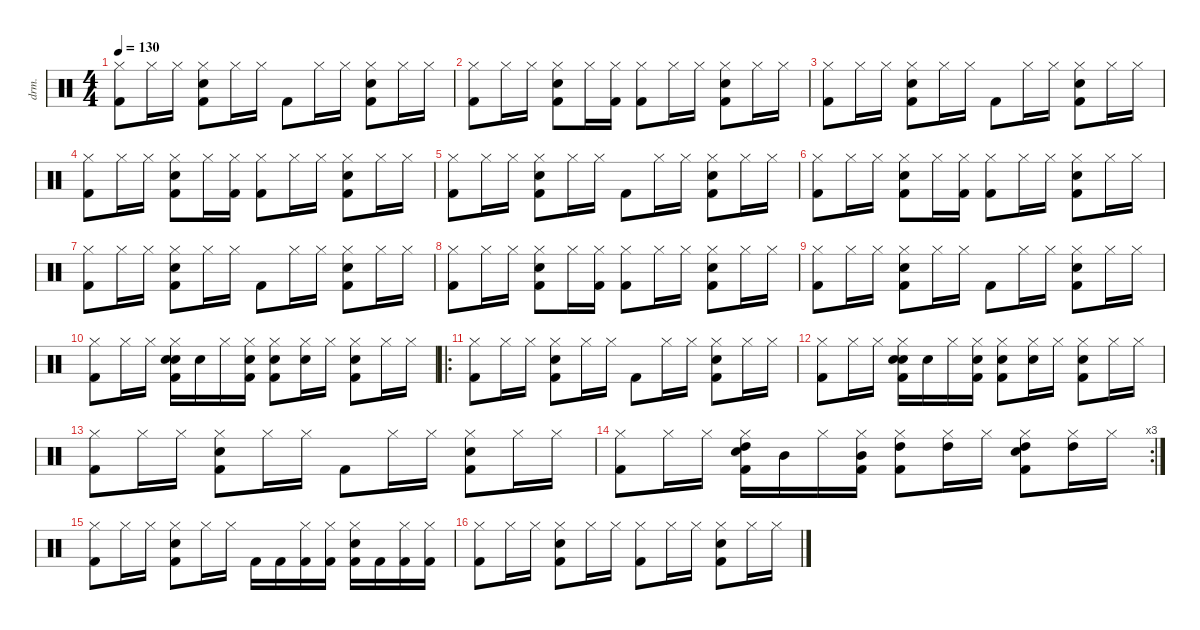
\defaultSystemsLayout 4
\hideDynamics
\bracketExtendMode nobrackets
\otherSystemsTrackNameOrientation horizontal
\track ("Percussion" "drm.") {defaultSystemsLayout 4 instrument percussion}
\staff {score}
\articulation defaults
\ts (4 4)
\tempo 130
\clef neutral
\ks c
("Hi-Hat (closed)" "Kick (hit) 2").8{dy f beam Down} "Hi-Hat (closed)".16{beam Down} "Hi-Hat (closed)".16{beam Down} ("Hi-Hat (closed)" "Snare (hit) 2" "Kick (hit) 2").8{beam Down} "Hi-Hat (closed)".16{beam Down} "Hi-Hat (closed)".16{beam Down} "Kick (hit) 2".8{beam Down} "Hi-Hat (closed)".16{beam Down} "Hi-Hat (closed)".16{beam Down} ("Hi-Hat (closed)" "Snare (hit) 2" "Kick (hit) 2").8{beam Down} "Hi-Hat (closed)".16{beam Down} "Hi-Hat (closed)".16{beam Down} |
("Hi-Hat (closed)" "Kick (hit) 2").8{beam Down} "Hi-Hat (closed)".16{beam Down} "Hi-Hat (closed)".16{beam Down} ("Hi-Hat (closed)" "Snare (hit) 2" "Kick (hit) 2").8{beam Down} "Hi-Hat (closed)".16{beam Down} ("Hi-Hat (closed)" "Kick (hit) 2").16{beam Down} ("Hi-Hat (closed)" "Kick (hit) 2").8{beam Down} "Hi-Hat (closed)".16{beam Down} "Hi-Hat (closed)".16{beam Down} ("Hi-Hat (closed)" "Snare (hit) 2" "Kick (hit) 2").8{beam Down} "Hi-Hat (closed)".16{beam Down} "Hi-Hat (closed)".16{beam Down} |
("Hi-Hat (closed)" "Kick (hit) 2").8{beam Down} "Hi-Hat (closed)".16{beam Down} "Hi-Hat (closed)".16{beam Down} ("Hi-Hat (closed)" "Snare (hit) 2" "Kick (hit) 2").8{beam Down} "Hi-Hat (closed)".16{beam Down} "Hi-Hat (closed)".16{beam Down} "Kick (hit) 2".8{beam Down} "Hi-Hat (closed)".16{beam Down} "Hi-Hat (closed)".16{beam Down} ("Hi-Hat (closed)" "Snare (hit) 2" "Kick (hit) 2").8{beam Down} "Hi-Hat (closed)".16{beam Down} "Hi-Hat (closed)".16{beam Down} |
("Hi-Hat (closed)" "Kick (hit) 2").8{beam Down} "Hi-Hat (closed)".16{beam Down} "Hi-Hat (closed)".16{beam Down} ("Hi-Hat (closed)" "Snare (hit) 2" "Kick (hit) 2").8{beam Down} "Hi-Hat (closed)".16{beam Down} ("Hi-Hat (closed)" "Kick (hit) 2").16{beam Down} ("Hi-Hat (closed)" "Kick (hit) 2").8{beam Down} "Hi-Hat (closed)".16{beam Down} "Hi-Hat (closed)".16{beam Down} ("Hi-Hat (closed)" "Snare (hit) 2" "Kick (hit) 2").8{beam Down} "Hi-Hat (closed)".16{beam Down} "Hi-Hat (closed)".16{beam Down} |
("Hi-Hat (closed)" "Kick (hit) 2").8{beam Down} "Hi-Hat (closed)".16{beam Down} "Hi-Hat (closed)".16{beam Down} ("Hi-Hat (closed)" "Snare (hit) 2" "Kick (hit) 2").8{beam Down} "Hi-Hat (closed)".16{beam Down} "Hi-Hat (closed)".16{beam Down} "Kick (hit) 2".8{beam Down} "Hi-Hat (closed)".16{beam Down} "Hi-Hat (closed)".16{beam Down} ("Hi-Hat (closed)" "Snare (hit) 2" "Kick (hit) 2").8{beam Down} "Hi-Hat (closed)".16{beam Down} "Hi-Hat (closed)".16{beam Down} |
("Hi-Hat (closed)" "Kick (hit) 2").8{beam Down} "Hi-Hat (closed)".16{beam Down} "Hi-Hat (closed)".16{beam Down} ("Hi-Hat (closed)" "Snare (hit) 2" "Kick (hit) 2").8{beam Down} "Hi-Hat (closed)".16{beam Down} ("Hi-Hat (closed)" "Kick (hit) 2").16{beam Down} ("Hi-Hat (closed)" "Kick (hit) 2").8{beam Down} "Hi-Hat (closed)".16{beam Down} "Hi-Hat (closed)".16{beam Down} ("Hi-Hat (closed)" "Snare (hit) 2" "Kick (hit) 2").8{beam Down} "Hi-Hat (closed)".16{beam Down} "Hi-Hat (closed)".16{beam Down} |
("Hi-Hat (closed)" "Kick (hit) 2").8{beam Down} "Hi-Hat (closed)".16{beam Down} "Hi-Hat (closed)".16{beam Down} ("Hi-Hat (closed)" "Snare (hit) 2" "Kick (hit) 2").8{beam Down} "Hi-Hat (closed)".16{beam Down} "Hi-Hat (closed)".16{beam Down} "Kick (hit) 2".8{beam Down} "Hi-Hat (closed)".16{beam Down} "Hi-Hat (closed)".16{beam Down} ("Hi-Hat (closed)" "Snare (hit) 2" "Kick (hit) 2").8{beam Down} "Hi-Hat (closed)".16{beam Down} "Hi-Hat (closed)".16{beam Down} |
("Hi-Hat (closed)" "Kick (hit) 2").8{beam Down} "Hi-Hat (closed)".16{beam Down} "Hi-Hat (closed)".16{beam Down} ("Hi-Hat (closed)" "Snare (hit) 2" "Kick (hit) 2").8{beam Down} "Hi-Hat (closed)".16{beam Down} ("Hi-Hat (closed)" "Kick (hit) 2").16{beam Down} ("Hi-Hat (closed)" "Kick (hit) 2").8{beam Down} "Hi-Hat (closed)".16{beam Down} "Hi-Hat (closed)".16{beam Down} ("Hi-Hat (closed)" "Snare (hit) 2" "Kick (hit) 2").8{beam Down} "Hi-Hat (closed)".16{beam Down} "Hi-Hat (closed)".16{beam Down} |
("Hi-Hat (closed)" "Kick (hit) 2").8{beam Down} "Hi-Hat (closed)".16{beam Down} "Hi-Hat (closed)".16{beam Down} ("Hi-Hat (closed)" "Snare (hit) 2" "Kick (hit) 2").8{beam Down} "Hi-Hat (closed)".16{beam Down} "Hi-Hat (closed)".16{beam Down} "Kick (hit) 2".8{beam Down} "Hi-Hat (closed)".16{beam Down} "Hi-Hat (closed)".16{beam Down} ("Hi-Hat (closed)" "Snare (hit) 2" "Kick (hit) 2").8{beam Down} "Hi-Hat (closed)".16{beam Down} "Hi-Hat (closed)".16{beam Down} |
("Hi-Hat (closed)" "Kick (hit) 2").8{beam Down} "Hi-Hat (closed)".16{beam Down} "Hi-Hat (closed)".16{beam Down} ("Hi-Hat (closed)" "Hand Clap (hit)" "Snare (hit) 2" "Kick (hit) 2").16{beam Down} "Hand Clap (hit)".16{beam Down} "Hi-Hat (closed)".16{beam Down} ("Hi-Hat (closed)" "Hand Clap (hit)" "Kick (hit) 2").16{beam Down} ("Hi-Hat (closed)" "Hand Clap (hit)" "Kick (hit) 2").8{beam Down} ("Hi-Hat (closed)" "Hand Clap (hit)").16{beam Down} "Hi-Hat (closed)".16{beam Down} ("Hi-Hat (closed)" "Snare (hit) 2" "Kick (hit) 2").8{beam Down} "Hi-Hat (closed)".16{beam Down} "Hi-Hat (closed)".16{beam Down} |
\ro
("Hi-Hat (closed)" "Kick (hit) 2").8{beam Down} "Hi-Hat (closed)".16{beam Down} "Hi-Hat (closed)".16{beam Down} ("Hi-Hat (closed)" "Snare (hit) 2" "Kick (hit) 2").8{beam Down} "Hi-Hat (closed)".16{beam Down} "Hi-Hat (closed)".16{beam Down} "Kick (hit) 2".8{beam Down} "Hi-Hat (closed)".16{beam Down} "Hi-Hat (closed)".16{beam Down} ("Hi-Hat (closed)" "Snare (hit) 2" "Kick (hit) 2").8{beam Down} "Hi-Hat (closed)".16{beam Down} "Hi-Hat (closed)".16{beam Down} |
("Hi-Hat (closed)" "Kick (hit) 2").8{beam Down} "Hi-Hat (closed)".16{beam Down} "Hi-Hat (closed)".16{beam Down} ("Hi-Hat (closed)" "Hand Clap (hit)" "Snare (hit) 2" "Kick (hit) 2").16{beam Down} "Hand Clap (hit)".16{beam Down} "Hi-Hat (closed)".16{beam Down} ("Hi-Hat (closed)" "Hand Clap (hit)" "Kick (hit) 2").16{beam Down} ("Hi-Hat (closed)" "Hand Clap (hit)" "Kick (hit) 2").8{beam Down} ("Hi-Hat (closed)" "Hand Clap (hit)").16{beam Down} "Hi-Hat (closed)".16{beam Down} ("Hi-Hat (closed)" "Snare (hit) 2" "Kick (hit) 2").8{beam Down} "Hi-Hat (closed)".16{beam Down} "Hi-Hat (closed)".16{beam Down} |
("Hi-Hat (closed)" "Kick (hit) 2").8{beam Down} "Hi-Hat (closed)".16{beam Down} "Hi-Hat (closed)".16{beam Down} ("Hi-Hat (closed)" "Snare (hit) 2" "Kick (hit) 2").8{beam Down} "Hi-Hat (closed)".16{beam Down} "Hi-Hat (closed)".16{beam Down} "Kick (hit) 2".8{beam Down} "Hi-Hat (closed)".16{beam Down} "Hi-Hat (closed)".16{beam Down} ("Hi-Hat (closed)" "Snare (hit) 2" "Kick (hit) 2").8{beam Down} "Hi-Hat (closed)".16{beam Down} "Hi-Hat (closed)".16{beam Down} |
\rc 3
("Hi-Hat (closed)" "Kick (hit) 2").8{beam Down} "Hi-Hat (closed)".16{beam Down} "Hi-Hat (closed)".16{beam Down} ("Hi-Hat (closed)" "High Tom (hit)" "Snare (hit) 2" "Kick (hit) 2").16{beam Down} "Mid Tom (hit)".16{beam Down} "Hi-Hat (closed)".16{beam Down} ("Hi-Hat (closed)" "Mid Tom (hit)" "Kick (hit) 2").16{beam Down} ("Hi-Hat (closed)" "High Tom (hit)" "Kick (hit) 2").8{beam Down} ("Hi-Hat (closed)" "High Tom (hit)").16{beam Down} "Hi-Hat (closed)".16{beam Down} ("Hi-Hat (closed)" "High Tom (hit)" "Snare (hit) 2" "Kick (hit) 2").8{beam Down} ("Hi-Hat (closed)" "High Tom (hit)").16{beam Down} "Hi-Hat (closed)".16{beam Down} |
("Hi-Hat (closed)" "Kick (hit) 2").8{beam Down} "Hi-Hat (closed)".16{beam Down} "Hi-Hat (closed)".16{beam Down} ("Hi-Hat (closed)" "Snare (hit) 2" "Kick (hit) 2").8{beam Down} "Hi-Hat (closed)".16{beam Down} "Hi-Hat (closed)".16{beam Down} "Kick (hit) 2".16{beam Down} "Kick (hit) 2".16{beam Down} ("Hi-Hat (closed)" "Kick (hit) 2").16{beam Down} ("Hi-Hat (closed)" "Kick (hit) 2").16{beam Down} ("Hi-Hat (closed)" "Snare (hit) 2" "Kick (hit) 2").16{beam Down} "Kick (hit) 2".16{beam Down} ("Hi-Hat (closed)" "Kick (hit) 2").16{beam Down} ("Hi-Hat (closed)" "Kick (hit) 2").16{beam Down} |
("Hi-Hat (closed)" "Kick (hit) 2").8{beam Down} "Hi-Hat (closed)".16{beam Down} "Hi-Hat (closed)".16{beam Down} ("Hi-Hat (closed)" "Snare (hit) 2" "Kick (hit) 2").8{beam Down} "Hi-Hat (closed)".16{beam Down} "Hi-Hat (closed)".16{beam Down} ("Hi-Hat (closed)" "Kick (hit) 2").8{beam Down} "Hi-Hat (closed)".16{beam Down} "Hi-Hat (closed)".16{beam Down} ("Hi-Hat (closed)" "Snare (hit) 2" "Kick (hit) 2").8{beam Down} "Hi-Hat (closed)".16{beam Down} "Hi-Hat (closed)".16{beam Down}
